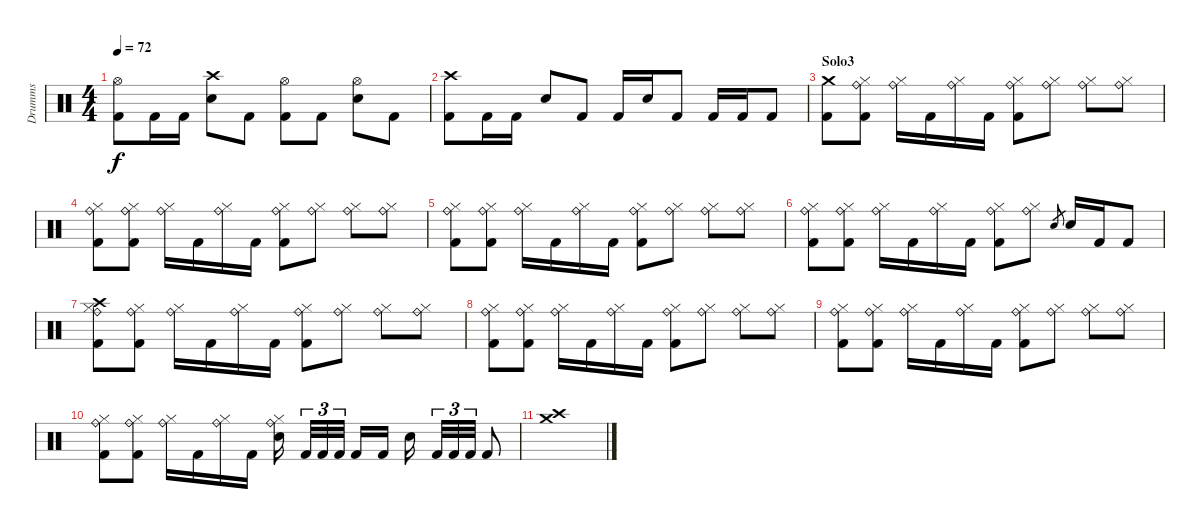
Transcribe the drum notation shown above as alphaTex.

\track ("Drumms" "Drumms") {instrument percussion}
\staff {score}
\articulation defaults
\ts (4 4)
\tempo 72
\clef neutral
\ks c
("Hi-Hat (open)" "Kick (hit) 2").8{dy f} "Kick (hit) 2".16 "Kick (hit) 2".16 ("Crash high (hit)" "Electric Snare (hit)").8 "Kick (hit) 2".8 ("Hi-Hat (open)" "Kick (hit) 2").8 "Kick (hit) 2".8 ("Hi-Hat (open)" "Electric Snare (hit)").8 "Kick (hit) 2".8 |
("Crash high (hit)" "Kick (hit) 2").8 "Kick (hit) 2".16 "Kick (hit) 2".16 "Electric Snare (hit)".8 "Kick (hit) 2".8 "Kick (hit) 2".16 "Electric Snare (hit)".16 "Kick (hit) 2".8 "Kick (hit) 2".16 "Kick (hit) 2".16 "Kick (hit) 2".8 |
\section ("" "Solo3")
("Crash medium (hit)" "Kick (hit) 2").8 ("Hi-Hat (closed)" "Ride (bell)" "Kick (hit) 2").8 ("Hi-Hat (closed)" "Ride (bell)").16 "Kick (hit) 2".16 ("Hi-Hat (closed)" "Ride (bell)").16 "Kick (hit) 2".16 ("Hi-Hat (closed)" "Ride (bell)" "Kick (hit) 2").8 ("Hi-Hat (closed)" "Ride (bell)").8 ("Hi-Hat (closed)" "Ride (bell)").8 ("Hi-Hat (closed)" "Ride (bell)").8 |
("Hi-Hat (closed)" "Ride (bell)" "Kick (hit) 2").8 ("Hi-Hat (closed)" "Ride (bell)" "Kick (hit) 2").8 ("Hi-Hat (closed)" "Ride (bell)").16 "Kick (hit) 2".16 ("Hi-Hat (closed)" "Ride (bell)").16 "Kick (hit) 2".16 ("Hi-Hat (closed)" "Ride (bell)" "Kick (hit) 2").8 ("Hi-Hat (closed)" "Ride (bell)").8 ("Hi-Hat (closed)" "Ride (bell)").8 ("Hi-Hat (closed)" "Ride (bell)").8 |
("Hi-Hat (closed)" "Ride (bell)" "Kick (hit) 2").8 ("Hi-Hat (closed)" "Ride (bell)" "Kick (hit) 2").8 ("Hi-Hat (closed)" "Ride (bell)").16 "Kick (hit) 2".16 ("Hi-Hat (closed)" "Ride (bell)").16 "Kick (hit) 2".16 ("Hi-Hat (closed)" "Ride (bell)" "Kick (hit) 2").8 ("Hi-Hat (closed)" "Ride (bell)").8 ("Hi-Hat (closed)" "Ride (bell)").8 ("Hi-Hat (closed)" "Ride (bell)").8 |
("Hi-Hat (closed)" "Ride (bell)" "Kick (hit) 2").8 ("Hi-Hat (closed)" "Ride (bell)" "Kick (hit) 2").8 ("Hi-Hat (closed)" "Ride (bell)").16 "Kick (hit) 2".16 ("Hi-Hat (closed)" "Ride (bell)").16 "Kick (hit) 2".16 ("Hi-Hat (closed)" "Ride (bell)" "Kick (hit) 2").8 ("Hi-Hat (closed)" "Ride (bell)").8 "Snare (hit) 2".8{gr} "Snare (hit) 2".16 "Kick (hit) 2".16 "Kick (hit) 2".8 |
("Hi-Hat (closed)" "Ride (bell)" "Crash high (hit)" "Kick (hit) 2").8 ("Hi-Hat (closed)" "Ride (bell)" "Kick (hit) 2").8 ("Hi-Hat (closed)" "Ride (bell)").16 "Kick (hit) 2".16 ("Hi-Hat (closed)" "Ride (bell)").16 "Kick (hit) 2".16 ("Hi-Hat (closed)" "Ride (bell)" "Kick (hit) 2").8 ("Hi-Hat (closed)" "Ride (bell)").8 ("Hi-Hat (closed)" "Ride (bell)").8 ("Hi-Hat (closed)" "Ride (bell)").8 |
("Hi-Hat (closed)" "Ride (bell)" "Kick (hit) 2").8 ("Hi-Hat (closed)" "Ride (bell)" "Kick (hit) 2").8 ("Hi-Hat (closed)" "Ride (bell)").16 "Kick (hit) 2".16 ("Hi-Hat (closed)" "Ride (bell)").16 "Kick (hit) 2".16 ("Hi-Hat (closed)" "Ride (bell)" "Kick (hit) 2").8 ("Hi-Hat (closed)" "Ride (bell)").8 ("Hi-Hat (closed)" "Ride (bell)").8 ("Hi-Hat (closed)" "Ride (bell)").8 |
("Hi-Hat (closed)" "Ride (bell)" "Kick (hit) 2").8 ("Hi-Hat (closed)" "Ride (bell)" "Kick (hit) 2").8 ("Hi-Hat (closed)" "Ride (bell)").16 "Kick (hit) 2".16 ("Hi-Hat (closed)" "Ride (bell)").16 "Kick (hit) 2".16 ("Hi-Hat (closed)" "Ride (bell)" "Kick (hit) 2").8 ("Hi-Hat (closed)" "Ride (bell)").8 ("Hi-Hat (closed)" "Ride (bell)").8 ("Hi-Hat (closed)" "Ride (bell)").8 |
("Hi-Hat (closed)" "Ride (bell)" "Kick (hit) 2").8 ("Hi-Hat (closed)" "Ride (bell)" "Kick (hit) 2").8 ("Hi-Hat (closed)" "Ride (bell)").16 "Kick (hit) 2".16 ("Hi-Hat (closed)" "Ride (bell)").16 "Kick (hit) 2".16 ("Hi-Hat (closed)" "Ride (bell)" "Electric Snare (hit)").16 "Kick (hit) 2".32{tu (3 2)} "Kick (hit) 2".32{tu (3 2)} "Kick (hit) 2".32{tu (3 2)} "Kick (hit) 2".16 "Kick (hit) 2".16 "Electric Snare (hit)".16 "Kick (hit) 2".32{tu (3 2)} "Kick (hit) 2".32{tu (3 2)} "Kick (hit) 2".32{tu (3 2)} "Kick (hit) 2".8 |
\section ("" "")
("Crash high (hit)" "Crash medium (hit)").1
